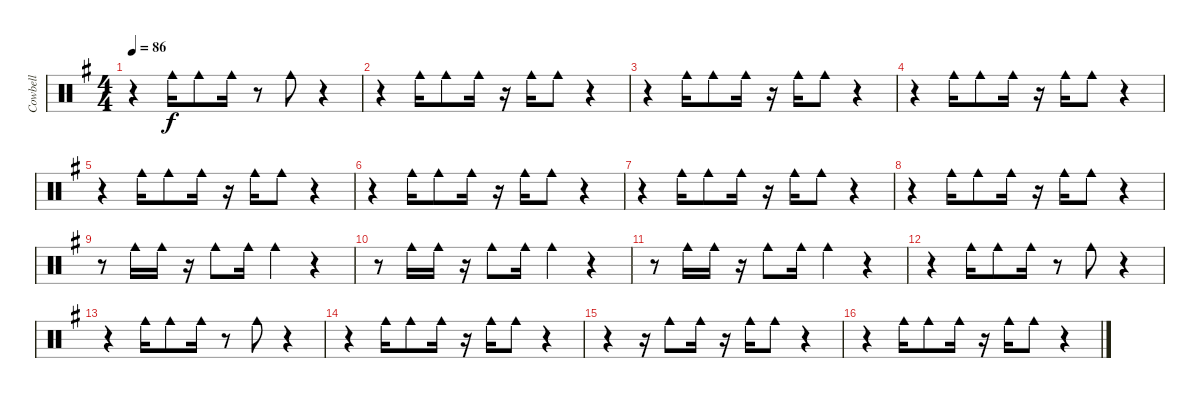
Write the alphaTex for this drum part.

\track ("Cowbell" "Cowbell") {instrument percussion}
\staff {score}
\articulation defaults
\ts (4 4)
\tempo 86
\clef neutral
\ks g
r.4{dy f} "Cowbell medium (hit)".16 "Cowbell medium (hit)".8 "Cowbell medium (hit)".16 r.8 "Cowbell medium (hit)".8 r.4 |
r.4 "Cowbell medium (hit)".16 "Cowbell medium (hit)".8 "Cowbell medium (hit)".16 r.16 "Cowbell medium (hit)".16 "Cowbell medium (hit)".8 r.4 |
r.4 "Cowbell medium (hit)".16 "Cowbell medium (hit)".8 "Cowbell medium (hit)".16 r.16 "Cowbell medium (hit)".16 "Cowbell medium (hit)".8 r.4 |
r.4 "Cowbell medium (hit)".16 "Cowbell medium (hit)".8 "Cowbell medium (hit)".16 r.16 "Cowbell medium (hit)".16 "Cowbell medium (hit)".8 r.4 |
r.4 "Cowbell medium (hit)".16 "Cowbell medium (hit)".8 "Cowbell medium (hit)".16 r.16 "Cowbell medium (hit)".16 "Cowbell medium (hit)".8 r.4 |
r.4 "Cowbell medium (hit)".16 "Cowbell medium (hit)".8 "Cowbell medium (hit)".16 r.16 "Cowbell medium (hit)".16 "Cowbell medium (hit)".8 r.4 |
r.4 "Cowbell medium (hit)".16 "Cowbell medium (hit)".8 "Cowbell medium (hit)".16 r.16 "Cowbell medium (hit)".16 "Cowbell medium (hit)".8 r.4 |
r.4 "Cowbell medium (hit)".16 "Cowbell medium (hit)".8 "Cowbell medium (hit)".16 r.16 "Cowbell medium (hit)".16 "Cowbell medium (hit)".8 r.4 |
r.8 "Cowbell medium (hit)".16 "Cowbell medium (hit)".16 r.16 "Cowbell medium (hit)".8 "Cowbell medium (hit)".16 "Cowbell medium (hit)".4 r.4 |
r.8 "Cowbell medium (hit)".16 "Cowbell medium (hit)".16 r.16 "Cowbell medium (hit)".8 "Cowbell medium (hit)".16 "Cowbell medium (hit)".4 r.4 |
r.8 "Cowbell medium (hit)".16 "Cowbell medium (hit)".16 r.16 "Cowbell medium (hit)".8 "Cowbell medium (hit)".16 "Cowbell medium (hit)".4 r.4 |
r.4 "Cowbell medium (hit)".16 "Cowbell medium (hit)".8 "Cowbell medium (hit)".16 r.8 "Cowbell medium (hit)".8 r.4 |
r.4 "Cowbell medium (hit)".16 "Cowbell medium (hit)".8 "Cowbell medium (hit)".16 r.8 "Cowbell medium (hit)".8 r.4 |
r.4 "Cowbell medium (hit)".16 "Cowbell medium (hit)".8 "Cowbell medium (hit)".16 r.16 "Cowbell medium (hit)".16 "Cowbell medium (hit)".8 r.4 |
r.4 r.16 "Cowbell medium (hit)".8 "Cowbell medium (hit)".16 r.16 "Cowbell medium (hit)".16 "Cowbell medium (hit)".8 r.4 |
r.4 "Cowbell medium (hit)".16 "Cowbell medium (hit)".8 "Cowbell medium (hit)".16 r.16 "Cowbell medium (hit)".16 "Cowbell medium (hit)".8 r.4
